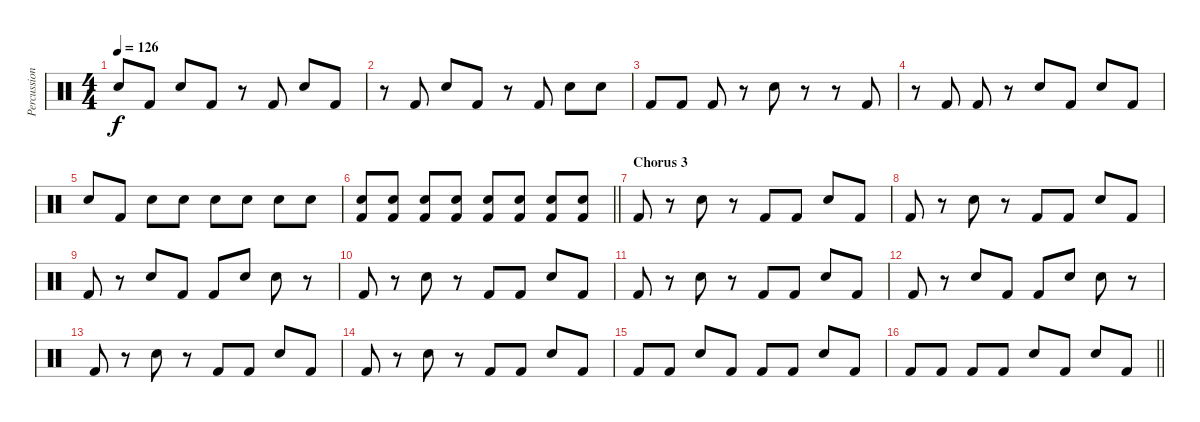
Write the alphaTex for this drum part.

\track ("Percussion" "Percussion") {instrument percussion}
\staff {score}
\articulation defaults
\ts (4 4)
\tempo 126
\clef neutral
\ks c "Snare (hit) 2".8{dy f} "Kick (hit) 2".8 "Snare (hit) 2".8 "Kick (hit) 2".8
r.8 "Kick (hit) 2".8 "Snare (hit) 2".8 "Kick (hit) 2".8 |
r.8 "Kick (hit) 2".8 "Snare (hit) 2".8 "Kick (hit) 2".8 r.8 "Kick (hit) 2".8 "Snare (hit) 2".8 "Snare (hit) 2".8 |
"Kick (hit) 2".8 "Kick (hit) 2".8 "Kick (hit) 2".8 r.8 "Snare (hit) 2".8 r.8 r.8 "Kick (hit) 2".8 |
r.8 "Kick (hit) 2".8 "Kick (hit) 2".8 r.8 "Snare (hit) 2".8 "Kick (hit) 2".8 "Snare (hit) 2".8 "Kick (hit) 2".8 |
"Snare (hit) 2".8 "Kick (hit) 2".8 "Snare (hit) 2".8 "Snare (hit) 2".8 "Snare (hit) 2".8 "Snare (hit) 2".8 "Snare (hit) 2".8 "Snare (hit) 2".8 |
\barLineRight lightlight
("Snare (hit) 2" "Kick (hit) 2").8 ("Snare (hit) 2" "Kick (hit) 2").8 ("Snare (hit) 2" "Kick (hit) 2").8 ("Snare (hit) 2" "Kick (hit) 2").8 ("Snare (hit) 2" "Kick (hit) 2").8 ("Snare (hit) 2" "Kick (hit) 2").8 ("Snare (hit) 2" "Kick (hit) 2").8 ("Snare (hit) 2" "Kick (hit) 2").8 |
\section ("" "Chorus 3")
"Kick (hit) 2".8 r.8 "Snare (hit) 2".8 r.8 "Kick (hit) 2".8 "Kick (hit) 2".8 "Snare (hit) 2".8 "Kick (hit) 2".8 |
"Kick (hit) 2".8 r.8 "Snare (hit) 2".8 r.8 "Kick (hit) 2".8 "Kick (hit) 2".8 "Snare (hit) 2".8 "Kick (hit) 2".8 |
"Kick (hit) 2".8 r.8 "Snare (hit) 2".8 "Kick (hit) 2".8 "Kick (hit) 2".8 "Snare (hit) 2".8 "Snare (hit) 2".8 r.8 |
"Kick (hit) 2".8 r.8 "Snare (hit) 2".8 r.8 "Kick (hit) 2".8 "Kick (hit) 2".8 "Snare (hit) 2".8 "Kick (hit) 2".8 |
"Kick (hit) 2".8 r.8 "Snare (hit) 2".8 r.8 "Kick (hit) 2".8 "Kick (hit) 2".8 "Snare (hit) 2".8 "Kick (hit) 2".8 |
"Kick (hit) 2".8 r.8 "Snare (hit) 2".8 "Kick (hit) 2".8 "Kick (hit) 2".8 "Snare (hit) 2".8 "Snare (hit) 2".8 r.8 |
"Kick (hit) 2".8 r.8 "Snare (hit) 2".8 r.8 "Kick (hit) 2".8 "Kick (hit) 2".8 "Snare (hit) 2".8 "Kick (hit) 2".8 |
"Kick (hit) 2".8 r.8 "Snare (hit) 2".8 r.8 "Kick (hit) 2".8 "Kick (hit) 2".8 "Snare (hit) 2".8 "Kick (hit) 2".8 |
"Kick (hit) 2".8 "Kick (hit) 2".8 "Snare (hit) 2".8 "Kick (hit) 2".8 "Kick (hit) 2".8 "Kick (hit) 2".8 "Snare (hit) 2".8 "Kick (hit) 2".8 |
\barLineRight lightlight "Kick (hit) 2".8 "Kick (hit) 2".8 "Kick (hit) 2".8 "Kick (hit) 2".8 "Snare (hit) 2".8 "Kick (hit) 2".8 "Snare (hit) 2".8 "Kick (hit) 2".8
